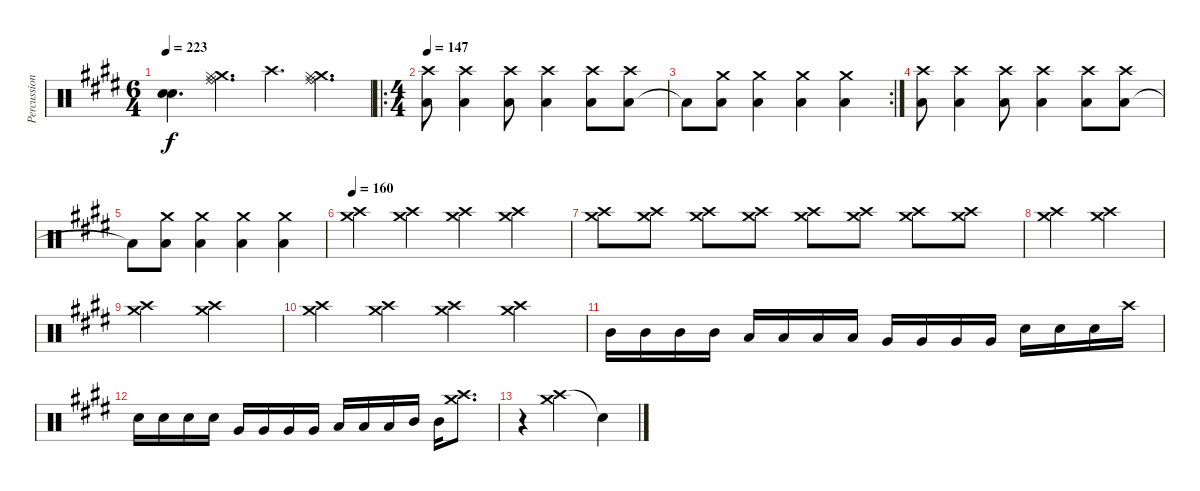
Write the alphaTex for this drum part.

\track ("Percussion" "Percussion") {instrument percussion}
\staff {score}
\articulation defaults
\ts (6 4)
\tempo 223
\clef neutral
\ks e
("Snare (hit) 2" "Snare (hit) 2").4{d dy f} ("Ride (middle)" "Crash medium (hit)" "Hi-Hat (closed)" "Ride (bell)").4{d} "Crash high (hit)".4{d} ("Ride (middle)" "Crash medium (hit)" "Hi-Hat (closed)" "Ride (bell)").4{d} |
\ro
\ts (4 4)
\tempo 147
("Low Tom (hit)" "Crash high (hit)").8 ("Low Tom (hit)" "Crash high (hit)").4 ("Low Tom (hit)" "Crash high (hit)").8 ("Low Tom (hit)" "Crash high (hit)").4 ("Low Tom (hit)" "Crash high (hit)").8 ("Low Tom (hit)" "Crash high (hit)").8 |
\rc 2 "Low Tom (hit)"{t}.8
("Low Tom (hit)" "Crash medium (hit)").8 ("Low Tom (hit)" "Crash medium (hit)").4 ("Low Tom (hit)" "Crash medium (hit)").4 ("Low Tom (hit)" "Crash medium (hit)").4 |
("Low Tom (hit)" "Crash high (hit)").8 ("Low Tom (hit)" "Crash high (hit)").4 ("Low Tom (hit)" "Crash high (hit)").8 ("Low Tom (hit)" "Crash high (hit)").4 ("Low Tom (hit)" "Crash high (hit)").8 ("Low Tom (hit)" "Crash high (hit)").8 |
"Low Tom (hit)"{t}.8 ("Low Tom (hit)" "Crash medium (hit)").8 ("Low Tom (hit)" "Crash medium (hit)").4 ("Low Tom (hit)" "Crash medium (hit)").4 ("Low Tom (hit)" "Crash medium (hit)").4 |
\tempo 160
("Crash high (hit)" "Crash medium (hit)").4 ("Crash high (hit)" "Crash medium (hit)").4 ("Crash high (hit)" "Crash medium (hit)").4 ("Crash high (hit)" "Crash medium (hit)").4 |
("Crash high (hit)" "Crash medium (hit)").8 ("Crash high (hit)" "Crash medium (hit)").8 ("Crash high (hit)" "Crash medium (hit)").8 ("Crash high (hit)" "Crash medium (hit)").8 ("Crash high (hit)" "Crash medium (hit)").8 ("Crash high (hit)" "Crash medium (hit)").8 ("Crash high (hit)" "Crash medium (hit)").8 ("Crash high (hit)" "Crash medium (hit)").8 |
("Crash high (hit)" "Crash medium (hit)").2 ("Crash high (hit)" "Crash medium (hit)").2 |
("Crash high (hit)" "Crash medium (hit)").2 ("Crash high (hit)" "Crash medium (hit)").2 |
("Crash high (hit)" "Crash medium (hit)").4 ("Crash high (hit)" "Crash medium (hit)").4 ("Crash high (hit)" "Crash medium (hit)").4 ("Crash high (hit)" "Crash medium (hit)").4 |
"Mid Tom (hit)".16 "Mid Tom (hit)".16 "Mid Tom (hit)".16 "Mid Tom (hit)".16 "Low Tom (hit)".16 "Low Tom (hit)".16 "Low Tom (hit)".16 "Low Tom (hit)".16 "Very Low Tom (hit)".16 "Very Low Tom (hit)".16 "Very Low Tom (hit)".16 "Very Low Tom (hit)".16 "Snare (hit) 2".16 "Snare (hit) 2".16 "Snare (hit) 2".16 "Crash high (hit)".16 |
"Snare (hit) 2".16 "Snare (hit) 2".16 "Snare (hit) 2".16 "Snare (hit) 2".16 "Very Low Tom (hit)".16 "Very Low Tom (hit)".16 "Very Low Tom (hit)".16 "Very Low Tom (hit)".16 "Low Tom (hit)".16 "Low Tom (hit)".16 "Low Tom (hit)".16 "Mid Tom (hit)".16 "Mid Tom (hit)".16 ("Crash medium (hit)" "Crash high (hit)").8{d} |
r.4 ("Crash high (hit)" "Crash medium (hit)").2 "Snare (hit)"{t}.4
